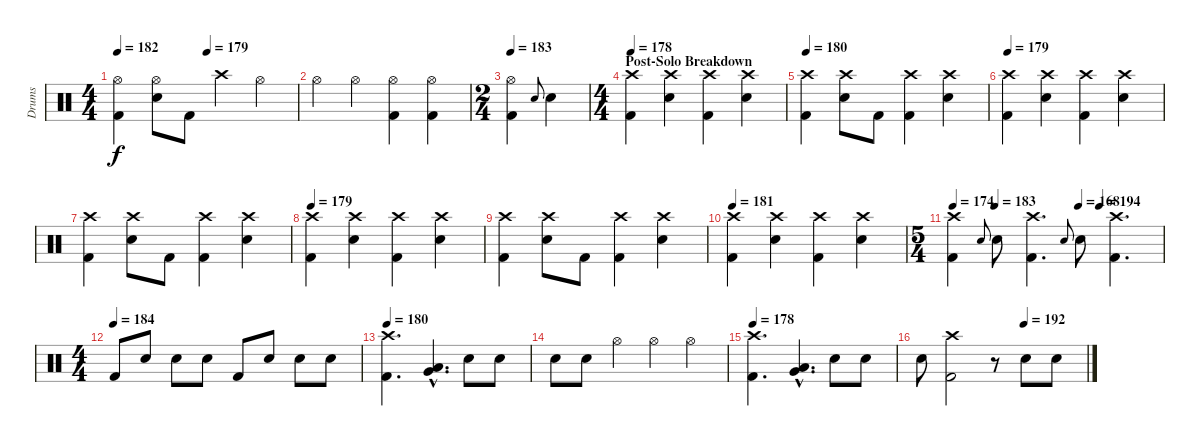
\track ("Drums" "Drums") {instrument percussion}
\staff {score}
\articulation defaults
\ts (4 4)
\tempo 182
\tempo (179 0.5)
\clef neutral
\ks c
("Kick (hit) 2" "Hi-Hat (open)").4{dy f} ("Snare (hit) 2" "Hi-Hat (open)").8 "Kick (hit) 2".8 "Crash high (hit)".4 "Hi-Hat (open)".4 |
"Hi-Hat (open)".4 "Hi-Hat (open)".4 ("Hi-Hat (open)" "Kick (hit) 2").4 ("Hi-Hat (open)" "Kick (hit) 2").4 |
\ts (2 4)
\tempo 183
("Hi-Hat (open)" "Kick (hit) 2").4 "Snare (hit)".8{gr onbeat} "Snare (hit) 2".4 |
\ts (4 4)
\section ("" "Post-Solo Breakdown")
\tempo 178
("Crash high (hit)" "Kick (hit) 2").4 ("Snare (hit) 2" "Crash high (hit)").4 ("Kick (hit) 2" "Crash high (hit)").4 ("Snare (hit) 2" "Crash high (hit)").4 |
\tempo 180
("Crash high (hit)" "Kick (hit) 2").4 ("Snare (hit) 2" "Crash high (hit)").8 "Kick (hit) 2".8 ("Kick (hit) 2" "Crash high (hit)").4 ("Snare (hit) 2" "Crash high (hit)").4 |
\tempo 179
("Crash high (hit)" "Kick (hit) 2").4 ("Snare (hit) 2" "Crash high (hit)").4 ("Kick (hit) 2" "Crash high (hit)").4 ("Snare (hit) 2" "Crash high (hit)").4 |
("Crash high (hit)" "Kick (hit) 2").4 ("Snare (hit) 2" "Crash high (hit)").8 "Kick (hit) 2".8 ("Kick (hit) 2" "Crash high (hit)").4 ("Snare (hit) 2" "Crash high (hit)").4 |
\tempo 179
("Crash high (hit)" "Kick (hit) 2").4 ("Snare (hit) 2" "Crash high (hit)").4 ("Kick (hit) 2" "Crash high (hit)").4 ("Snare (hit) 2" "Crash high (hit)").4 |
("Crash high (hit)" "Kick (hit) 2").4 ("Snare (hit) 2" "Crash high (hit)").8 "Kick (hit) 2".8 ("Kick (hit) 2" "Crash high (hit)").4 ("Snare (hit) 2" "Crash high (hit)").4 |
\tempo 181
("Crash high (hit)" "Kick (hit) 2").4 ("Snare (hit) 2" "Crash high (hit)").4 ("Kick (hit) 2" "Crash high (hit)").4 ("Snare (hit) 2" "Crash high (hit)").4 |
\ts (5 4)
\tempo 174
\tempo (183 0.2)
\tempo (168 0.6)
\tempo (194 0.7)
("Crash high (hit)" "Kick (hit) 2").4 "Snare (hit)".8{gr onbeat} "Snare (hit) 2".8 ("Kick (hit) 2" "Crash high (hit)").4{d} "Snare (hit)".8{gr onbeat} "Snare (hit) 2".8 ("Kick (hit) 2" "Crash high (hit)").4{d} |
\ts (4 4)
\tempo (184)
"Kick (hit) 2".8 "Snare (hit) 2".8 "Snare (hit) 2".8 "Snare (hit) 2".8 "Kick (hit) 2".8 "Snare (hit) 2".8 "Snare (hit) 2".8 "Snare (hit) 2".8 |
\tempo 180
("Kick (hit) 2" "Crash high (hit)").4{d} ("Very Low Tom (hit)"{hac} "Low Tom (hit)"{hac}).4{d} "Snare (hit) 2".8 "Snare (hit) 2".8 |
"Snare (hit) 2".8 "Snare (hit) 2".8 "Hi-Hat (open)".4 "Hi-Hat (open)".4 "Hi-Hat (open)".4 |
\tempo 178
("Kick (hit) 2" "Crash high (hit)").4{d} ("Very Low Tom (hit)"{hac} "Low Tom (hit)"{hac}).4{d} "Snare (hit) 2".8 "Snare (hit) 2".8 |
\tempo (192 0.625)
"Snare (hit) 2".8 ("Kick (hit) 2" "Crash high (hit)").2 r.8 "Snare (hit) 2".8 "Snare (hit) 2".8
